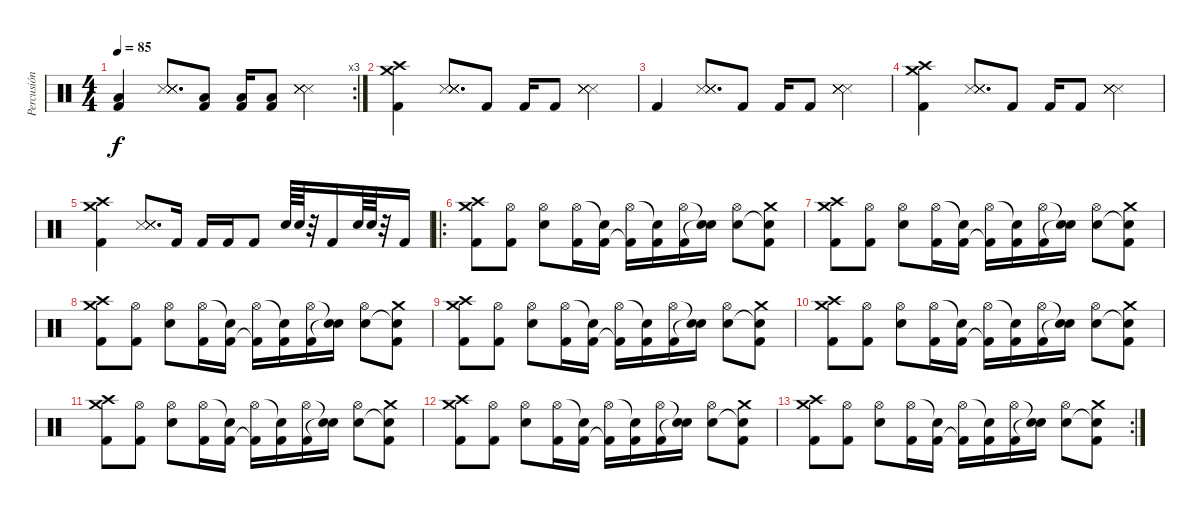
\track ("Percusión" "Percusión") {instrument percussion}
\staff {score}
\articulation defaults
\rc 3
\ts (4 4)
\tempo 85
\clef neutral
\ks c
("Low Tom (hit)" "Kick (hit) 2").4{dy f} ("Snare (side stick) 3" "Snare (side stick) 3" "Snare (side stick) 3" "Snare (side stick) 3" "Snare (side stick) 3").8{d} ("Low Tom (hit)" "Kick (hit) 2").8 ("Low Tom (hit)" "Kick (hit) 2").16 ("Low Tom (hit)" "Kick (hit) 2").8 ("Snare (side stick) 3" "Snare (side stick) 3" "Snare (side stick) 3" "Snare (side stick) 3" "Snare (side stick) 3").4 |
("Crash medium (hit)" "Crash high (hit)" "Kick (hit) 2").4 ("Snare (side stick) 3" "Snare (side stick) 3" "Snare (side stick) 3" "Snare (side stick) 3" "Snare (side stick) 3").8{d} "Kick (hit) 2".8 "Kick (hit) 2".16 "Kick (hit) 2".8 ("Snare (side stick) 3" "Snare (side stick) 3" "Snare (side stick) 3" "Snare (side stick) 3" "Snare (side stick) 3").4 |
"Kick (hit) 2".4 ("Snare (side stick) 3" "Snare (side stick) 3" "Snare (side stick) 3" "Snare (side stick) 3" "Snare (side stick) 3").8{d} "Kick (hit) 2".8 "Kick (hit) 2".16 "Kick (hit) 2".8 ("Snare (side stick) 3" "Snare (side stick) 3" "Snare (side stick) 3" "Snare (side stick) 3" "Snare (side stick) 3").4 |
("Crash medium (hit)" "Crash high (hit)" "Kick (hit) 2").4 ("Snare (side stick) 3" "Snare (side stick) 3" "Snare (side stick) 3" "Snare (side stick) 3" "Snare (side stick) 3").8{d} "Kick (hit) 2".8 "Kick (hit) 2".16 "Kick (hit) 2".8 ("Snare (side stick) 3" "Snare (side stick) 3" "Snare (side stick) 3" "Snare (side stick) 3" "Snare (side stick) 3").4 |
("Crash medium (hit)" "Crash high (hit)" "Kick (hit) 2").4 ("Snare (side stick) 3" "Snare (side stick) 3" "Snare (side stick) 3" "Snare (side stick) 3" "Snare (side stick) 3").8{d} "Kick (hit) 2".16 "Kick (hit) 2".16 "Kick (hit) 2".16 "Kick (hit) 2".8 "Electric Snare (hit)".64 "Electric Snare (hit)".64 r.32 "Kick (hit) 2".16 "Electric Snare (hit)".64 "Electric Snare (hit)".64 r.32 "Kick (hit) 2".16 |
\ro
("Crash high (hit)" "Crash medium (hit)" "Kick (hit) 2").8 ("Hi-Hat (open)" "Kick (hit) 2").8 ("Hi-Hat (open)" "Electric Snare (hit)").8 ("Hi-Hat (open)" "Kick (hit) 2").16 ("Snare (hit)"{t} "Kick (hit) 2").16 ("Hi-Hat (open)" "Kick (hit) 2"{t}).16 ("Snare (hit)"{t} "Kick (hit) 2").16 ("Hi-Hat (open)" "Kick (hit) 2").16 ("Snare (hit)"{t} "Snare (hit)"{t}).16 ("Hi-Hat (open)" "Electric Snare (hit)").8 ("Crash medium (hit)" "Snare (hit)"{t} "Kick (hit) 2").8 |
("Crash high (hit)" "Crash medium (hit)" "Kick (hit) 2").8 ("Hi-Hat (open)" "Kick (hit) 2").8 ("Hi-Hat (open)" "Electric Snare (hit)").8 ("Hi-Hat (open)" "Kick (hit) 2").16 ("Snare (hit)"{t} "Kick (hit) 2").16 ("Hi-Hat (open)" "Kick (hit) 2"{t}).16 ("Snare (hit)"{t} "Kick (hit) 2").16 ("Hi-Hat (open)" "Kick (hit) 2").16 ("Snare (hit)"{t} "Snare (hit)"{t}).16 ("Hi-Hat (open)" "Electric Snare (hit)").8 ("Crash medium (hit)" "Snare (hit)"{t} "Kick (hit) 2").8 |
("Crash high (hit)" "Crash medium (hit)" "Kick (hit) 2").8 ("Hi-Hat (open)" "Kick (hit) 2").8 ("Hi-Hat (open)" "Electric Snare (hit)").8 ("Hi-Hat (open)" "Kick (hit) 2").16 ("Snare (hit)"{t} "Kick (hit) 2").16 ("Hi-Hat (open)" "Kick (hit) 2"{t}).16 ("Snare (hit)"{t} "Kick (hit) 2").16 ("Hi-Hat (open)" "Kick (hit) 2").16 ("Snare (hit)"{t} "Snare (hit)"{t}).16 ("Hi-Hat (open)" "Electric Snare (hit)").8 ("Crash medium (hit)" "Snare (hit)"{t} "Kick (hit) 2").8 |
("Crash high (hit)" "Crash medium (hit)" "Kick (hit) 2").8 ("Hi-Hat (open)" "Kick (hit) 2").8 ("Hi-Hat (open)" "Electric Snare (hit)").8 ("Hi-Hat (open)" "Kick (hit) 2").16 ("Snare (hit)"{t} "Kick (hit) 2").16 ("Hi-Hat (open)" "Kick (hit) 2"{t}).16 ("Snare (hit)"{t} "Kick (hit) 2").16 ("Hi-Hat (open)" "Kick (hit) 2").16 ("Snare (hit)"{t} "Snare (hit)"{t}).16 ("Hi-Hat (open)" "Electric Snare (hit)").8 ("Crash medium (hit)" "Snare (hit)"{t} "Kick (hit) 2").8 |
("Crash high (hit)" "Crash medium (hit)" "Kick (hit) 2").8 ("Hi-Hat (open)" "Kick (hit) 2").8 ("Hi-Hat (open)" "Electric Snare (hit)").8 ("Hi-Hat (open)" "Kick (hit) 2").16 ("Snare (hit)"{t} "Kick (hit) 2").16 ("Hi-Hat (open)" "Kick (hit) 2"{t}).16 ("Snare (hit)"{t} "Kick (hit) 2").16 ("Hi-Hat (open)" "Kick (hit) 2").16 ("Snare (hit)"{t} "Snare (hit)"{t}).16 ("Hi-Hat (open)" "Electric Snare (hit)").8 ("Crash medium (hit)" "Snare (hit)"{t} "Kick (hit) 2").8 |
("Crash high (hit)" "Crash medium (hit)" "Kick (hit) 2").8 ("Hi-Hat (open)" "Kick (hit) 2").8 ("Hi-Hat (open)" "Electric Snare (hit)").8 ("Hi-Hat (open)" "Kick (hit) 2").16 ("Snare (hit)"{t} "Kick (hit) 2").16 ("Hi-Hat (open)" "Kick (hit) 2"{t}).16 ("Snare (hit)"{t} "Kick (hit) 2").16 ("Hi-Hat (open)" "Kick (hit) 2").16 ("Snare (hit)"{t} "Snare (hit)"{t}).16 ("Hi-Hat (open)" "Electric Snare (hit)").8 ("Crash medium (hit)" "Snare (hit)"{t} "Kick (hit) 2").8 |
("Crash high (hit)" "Crash medium (hit)" "Kick (hit) 2").8 ("Hi-Hat (open)" "Kick (hit) 2").8 ("Hi-Hat (open)" "Electric Snare (hit)").8 ("Hi-Hat (open)" "Kick (hit) 2").16 ("Snare (hit)"{t} "Kick (hit) 2").16 ("Hi-Hat (open)" "Kick (hit) 2"{t}).16 ("Snare (hit)"{t} "Kick (hit) 2").16 ("Hi-Hat (open)" "Kick (hit) 2").16 ("Snare (hit)"{t} "Snare (hit)"{t}).16 ("Hi-Hat (open)" "Electric Snare (hit)").8 ("Crash medium (hit)" "Snare (hit)"{t} "Kick (hit) 2").8 |
\rc 2
("Crash high (hit)" "Crash medium (hit)" "Kick (hit) 2").8 ("Hi-Hat (open)" "Kick (hit) 2").8 ("Hi-Hat (open)" "Electric Snare (hit)").8 ("Hi-Hat (open)" "Kick (hit) 2").16 ("Snare (hit)"{t} "Kick (hit) 2").16 ("Hi-Hat (open)" "Kick (hit) 2"{t}).16 ("Snare (hit)"{t} "Kick (hit) 2").16 ("Hi-Hat (open)" "Kick (hit) 2").16 ("Snare (hit)"{t} "Snare (hit)"{t}).16 ("Hi-Hat (open)" "Electric Snare (hit)").8 ("Crash medium (hit)" "Snare (hit)"{t} "Kick (hit) 2").8
